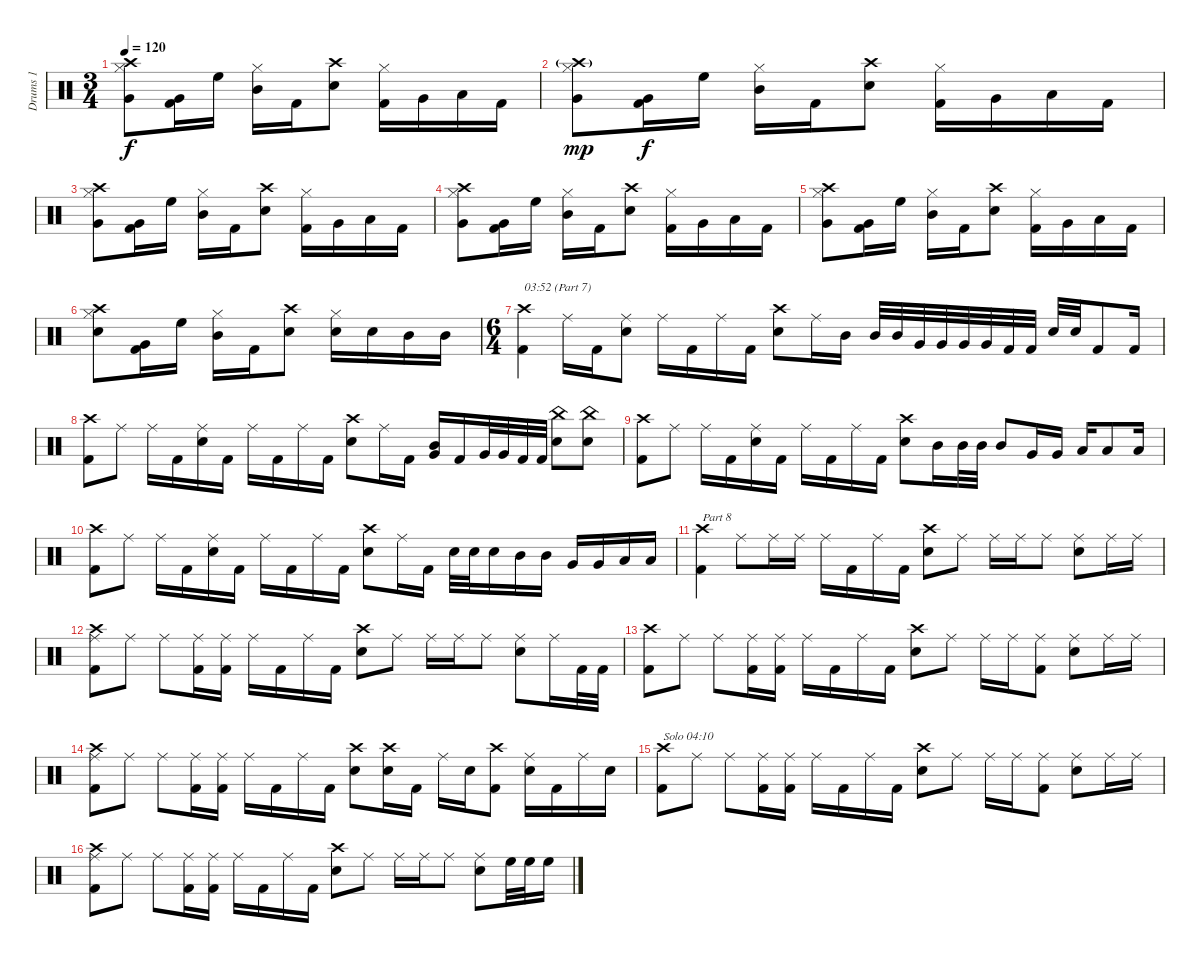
\track ("Drums 1" "Drums 1") {instrument percussion}
\staff {score}
\articulation defaults
\ts (3 4)
\tempo 120
\clef neutral
\ks c
("Crash high (hit)" "Very Low Tom (hit)" "Hi-Hat (closed)").8{dy f} ("Very Low Tom (hit)" "Kick (hit) 2").16 "High Floor Tom (hit)".16 ("Mid Tom (hit)" "Hi-Hat (closed)").16 "Kick (hit) 2".16 ("Crash high (hit)" "Snare (hit) 2").8 ("Kick (hit) 2" "Hi-Hat (closed)").16 "Very Low Tom (hit)".16 "Low Floor Tom (hit)".16 "Kick (hit) 2".16 |
("Crash high (hit)"{g} "Very Low Tom (hit)" "Hi-Hat (closed)").8{dy mp} ("Very Low Tom (hit)" "Kick (hit) 2").16{dy f} "High Floor Tom (hit)".16 ("Mid Tom (hit)" "Hi-Hat (closed)").16 "Kick (hit) 2".16 ("Crash high (hit)" "Snare (hit) 2").8 ("Kick (hit) 2" "Hi-Hat (closed)").16 "Very Low Tom (hit)".16 "Low Floor Tom (hit)".16 "Kick (hit) 2".16 |
("Crash high (hit)" "Very Low Tom (hit)" "Hi-Hat (closed)").8 ("Very Low Tom (hit)" "Kick (hit) 2").16 "High Floor Tom (hit)".16 ("Mid Tom (hit)" "Hi-Hat (closed)").16 "Kick (hit) 2".16 ("Crash high (hit)" "Snare (hit) 2").8 ("Kick (hit) 2" "Hi-Hat (closed)").16 "Very Low Tom (hit)".16 "Low Floor Tom (hit)".16 "Kick (hit) 2".16 |
("Crash high (hit)" "Very Low Tom (hit)" "Hi-Hat (closed)").8 ("Very Low Tom (hit)" "Kick (hit) 2").16 "High Floor Tom (hit)".16 ("Mid Tom (hit)" "Hi-Hat (closed)").16 "Kick (hit) 2".16 ("Crash high (hit)" "Snare (hit) 2").8 ("Kick (hit) 2" "Hi-Hat (closed)").16 "Very Low Tom (hit)".16 "Low Floor Tom (hit)".16 "Kick (hit) 2".16 |
("Crash high (hit)" "Very Low Tom (hit)" "Hi-Hat (closed)").8 ("Very Low Tom (hit)" "Kick (hit) 2").16 "High Floor Tom (hit)".16 ("Mid Tom (hit)" "Hi-Hat (closed)").16 "Kick (hit) 2".16 ("Crash high (hit)" "Snare (hit) 2").8 ("Kick (hit) 2" "Hi-Hat (closed)").16 "Very Low Tom (hit)".16 "Low Floor Tom (hit)".16 "Kick (hit) 2".16 |
("Crash high (hit)" "Snare (hit) 2" "Hi-Hat (closed)").8 ("Very Low Tom (hit)" "Kick (hit) 2").16 "High Floor Tom (hit)".16 ("Mid Tom (hit)" "Hi-Hat (closed)").16 "Kick (hit) 2".16 ("Crash high (hit)" "Snare (hit) 2").8 ("Snare (hit) 2" "Hi-Hat (closed)").16 "Snare (hit) 2".16 "Mid Tom (hit)".16 "Mid Tom (hit)".16 |
\ts (6 4)
("Crash high (hit)" "Kick (hit) 2").4{txt "03:52 (Part 7)"} "Ride (middle)".16 "Kick (hit) 2".16 ("Ride (middle)" "Snare (hit) 2").8 "Ride (middle)".16 "Kick (hit) 2".16 "Ride (middle)".16 "Kick (hit) 2".16 ("Crash high (hit)" "Snare (hit) 2").8 "Ride (middle)".16 "Mid Tom (hit)".16 "Mid Tom (hit)".32 "Mid Tom (hit)".32 "Very Low Tom (hit)".32 "Very Low Tom (hit)".32 "Very Low Tom (hit)".32 "Very Low Tom (hit)".32 "Kick (hit) 2".32 "Kick (hit) 2".32 "Snare (hit) 2".32 "Snare (hit) 2".32 "Kick (hit) 2".8 "Kick (hit) 2".16 |
("Crash high (hit)" "Kick (hit) 2").8 "Ride (middle)".8 "Ride (middle)".16 "Kick (hit) 2".16 ("Ride (middle)" "Snare (hit) 2").16 "Kick (hit) 2".16 "Ride (middle)".16 "Kick (hit) 2".16 "Ride (middle)".16 "Kick (hit) 2".16 ("Crash high (hit)" "Snare (hit) 2").8 "Ride (middle)".16 "Kick (hit) 2".16 ("Mid Tom (hit)" "Very Low Tom (hit)").16 "Kick (hit) 2".16 "Very Low Tom (hit)".32 "Very Low Tom (hit)".32 "Kick (hit) 2".32 "Kick (hit) 2".32 ("China (hit)" "Snare (hit) 2").8 ("China (hit)" "Snare (hit) 2").8 |
("Crash high (hit)" "Kick (hit) 2").8 "Ride (middle)".8 "Ride (middle)".16 "Kick (hit) 2".16 ("Ride (middle)" "Snare (hit) 2").16 "Kick (hit) 2".16 "Ride (middle)".16 "Kick (hit) 2".16 "Ride (middle)".16 "Kick (hit) 2".16 ("Crash high (hit)" "Snare (hit) 2").8 "Mid Tom (hit)".16 "Mid Tom (hit)".32 "Mid Tom (hit)".32 "Mid Tom (hit)".8 "Very Low Tom (hit)".16 "Very Low Tom (hit)".16 "Low Floor Tom (hit)".16 "Low Floor Tom (hit)".8 "Low Floor Tom (hit)".16 |
("Crash high (hit)" "Kick (hit) 2").8 "Ride (middle)".8 "Ride (middle)".16 "Kick (hit) 2".16 ("Ride (middle)" "Snare (hit) 2").16 "Kick (hit) 2".16 "Ride (middle)".16 "Kick (hit) 2".16 "Ride (middle)".16 "Kick (hit) 2".16 ("Crash high (hit)" "Snare (hit) 2").8 "Ride (middle)".16 "Kick (hit) 2".16 "Snare (hit) 2".32 "Snare (hit) 2".32 "Snare (hit) 2".16 "Mid Tom (hit)".16 "Mid Tom (hit)".16 "Very Low Tom (hit)".16 "Very Low Tom (hit)".16 "Low Floor Tom (hit)".16 "Low Floor Tom (hit)".16 |
("Crash high (hit)" "Kick (hit) 2").4{txt "Part 8"} "Ride (middle)".8 "Ride (middle)".16 "Ride (middle)".16 "Ride (middle)".16 "Kick (hit) 2".16 "Ride (middle)".16 "Kick (hit) 2".16 ("Crash high (hit)" "Snare (hit) 2").8 "Ride (middle)".8 "Ride (middle)".16 "Ride (middle)".16 "Ride (middle)".8 ("Ride (middle)" "Snare (hit) 2").8 "Ride (middle)".16 "Ride (middle)".16 |
("Crash high (hit)" "Ride (middle)" "Kick (hit) 2").8 "Ride (middle)".8 "Ride (middle)".8 ("Ride (middle)" "Kick (hit) 2").16 ("Ride (middle)" "Kick (hit) 2").16 "Ride (middle)".16 "Kick (hit) 2".16 "Ride (middle)".16 "Kick (hit) 2".16 ("Crash high (hit)" "Snare (hit) 2").8 "Ride (middle)".8 "Ride (middle)".16 "Ride (middle)".16 "Ride (middle)".8 ("Ride (middle)" "Snare (hit) 2").8 "Ride (middle)".16 "Kick (hit) 2".32 "Kick (hit) 2".32 |
("Crash high (hit)" "Kick (hit) 2").8 "Ride (middle)".8 "Ride (middle)".8 ("Ride (middle)" "Kick (hit) 2").16 ("Ride (middle)" "Kick (hit) 2").16 "Ride (middle)".16 "Kick (hit) 2".16 "Ride (middle)".16 "Kick (hit) 2".16 ("Crash high (hit)" "Snare (hit) 2").8 "Ride (middle)".8 "Ride (middle)".16 "Ride (middle)".16 ("Ride (middle)" "Kick (hit) 2").8 ("Ride (middle)" "Snare (hit) 2").8 "Ride (middle)".16 "Ride (middle)".16 |
("Crash high (hit)" "Ride (middle)" "Kick (hit) 2").8 "Ride (middle)".8 "Ride (middle)".8 ("Ride (middle)" "Kick (hit) 2").16 ("Ride (middle)" "Kick (hit) 2").16 "Ride (middle)".16 "Kick (hit) 2".16 "Ride (middle)".16 "Kick (hit) 2".16 ("Crash high (hit)" "Snare (hit) 2").8 ("Crash high (hit)" "Snare (hit) 2").16 "Kick (hit) 2".16 "Ride (middle)".16 "Snare (hit) 2".16 ("Crash high (hit)" "Kick (hit) 2").8 ("Ride (middle)" "Snare (hit) 2").16 "Kick (hit) 2".16 "Ride (middle)".16 "Snare (hit) 2".16 |
("Crash high (hit)" "Kick (hit) 2").8{txt "Solo 04:10"} "Ride (middle)".8 "Ride (middle)".8 ("Ride (middle)" "Kick (hit) 2").16 ("Ride (middle)" "Kick (hit) 2").16 "Ride (middle)".16 "Kick (hit) 2".16 "Ride (middle)".16 "Kick (hit) 2".16 ("Crash high (hit)" "Snare (hit) 2").8 "Ride (middle)".8 "Ride (middle)".16 "Ride (middle)".16 ("Ride (middle)" "Kick (hit) 2").8 ("Ride (middle)" "Snare (hit) 2").8 "Ride (middle)".16 "Ride (middle)".16 |
("Crash high (hit)" "Ride (middle)" "Kick (hit) 2").8 "Ride (middle)".8 "Ride (middle)".8 ("Ride (middle)" "Kick (hit) 2").16 ("Ride (middle)" "Kick (hit) 2").16 "Ride (middle)".16 "Kick (hit) 2".16 "Ride (middle)".16 "Kick (hit) 2".16 ("Crash high (hit)" "Snare (hit) 2").8 "Ride (middle)".8 "Ride (middle)".16 "Ride (middle)".16 "Ride (middle)".8 ("Ride (middle)" "Snare (hit) 2").8 "High Floor Tom (hit)".32 "High Floor Tom (hit)".32 "High Floor Tom (hit)".16
